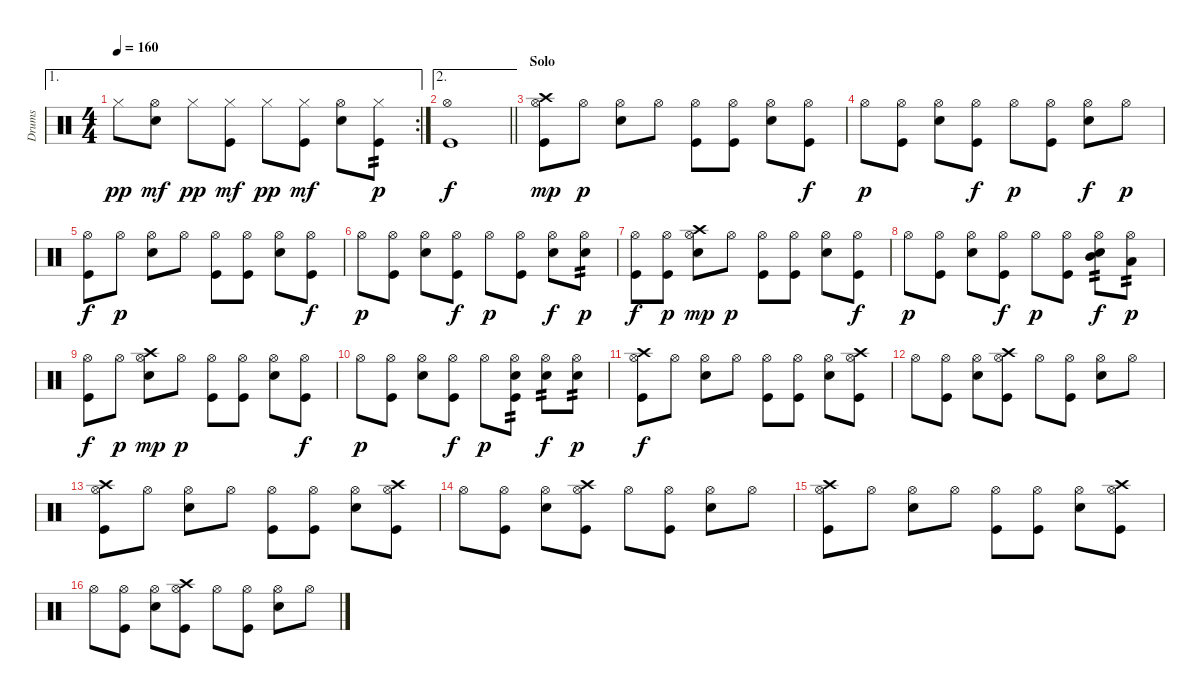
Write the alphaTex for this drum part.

\track ("Drums" "Drums") {instrument percussion}
\staff {score}
\articulation defaults
\ae 1
\rc 2
\ts (4 4)
\tempo 160
\clef neutral
\ks c "Hi-Hat (closed)".8{dy pp}
("Snare (hit) 2" "Hi-Hat (open)").8{dy mf} "Hi-Hat (closed)".8{dy pp} ("Kick (hit)" "Hi-Hat (closed)").8{dy mf} "Hi-Hat (closed)".8{dy pp} ("Kick (hit)" "Hi-Hat (closed)").8{dy mf} ("Snare (hit) 2" "Hi-Hat (open)").8 ("Kick (hit)" "Hi-Hat (closed)").8{tp 2 dy p} |
\ae 2
\barLineRight lightlight
("Kick (hit)" "Hi-Hat (open)").1{dy f} |
\section ("" "Solo")
("Kick (hit)" "Hi-Hat (open)" "Crash high (hit)").8{dy mp} "Hi-Hat (open)".8{dy p} ("Snare (hit) 2" "Hi-Hat (open)").8 "Hi-Hat (open)".8 ("Kick (hit)" "Hi-Hat (open)").8 ("Kick (hit)" "Hi-Hat (open)").8 ("Snare (hit) 2" "Hi-Hat (open)").8 ("Kick (hit)" "Hi-Hat (open)").8{dy f} |
"Hi-Hat (open)".8{dy p} ("Kick (hit)" "Hi-Hat (open)").8 ("Snare (hit) 2" "Hi-Hat (open)").8 ("Kick (hit)" "Hi-Hat (open)").8{dy f} "Hi-Hat (open)".8{dy p} ("Kick (hit)" "Hi-Hat (open)").8 ("Snare (hit) 2" "Hi-Hat (open)").8{dy f} "Hi-Hat (open)".8{dy p} |
("Kick (hit)" "Hi-Hat (open)").8{dy f} "Hi-Hat (open)".8{dy p} ("Snare (hit) 2" "Hi-Hat (open)").8 "Hi-Hat (open)".8 ("Kick (hit)" "Hi-Hat (open)").8 ("Kick (hit)" "Hi-Hat (open)").8 ("Snare (hit) 2" "Hi-Hat (open)").8 ("Kick (hit)" "Hi-Hat (open)").8{dy f} |
"Hi-Hat (open)".8{dy p} ("Kick (hit)" "Hi-Hat (open)").8 ("Snare (hit) 2" "Hi-Hat (open)").8 ("Kick (hit)" "Hi-Hat (open)").8{dy f} "Hi-Hat (open)".8{dy p} ("Kick (hit)" "Hi-Hat (open)").8 ("Snare (hit) 2" "Hi-Hat (open)").8{dy f} ("Snare (hit) 2" "Hi-Hat (open)").8{tp 2 dy p} |
("Kick (hit)" "Hi-Hat (open)").8{dy f} ("Kick (hit)" "Hi-Hat (open)").8{dy p} ("Snare (hit) 2" "Hi-Hat (open)" "Crash high (hit)").8{dy mp} "Hi-Hat (open)".8{dy p} ("Kick (hit)" "Hi-Hat (open)").8 ("Kick (hit)" "Hi-Hat (open)").8 ("Snare (hit) 2" "Hi-Hat (open)").8 ("Kick (hit)" "Hi-Hat (open)").8{dy f} |
"Hi-Hat (open)".8{dy p} ("Kick (hit)" "Hi-Hat (open)").8 ("Snare (hit) 2" "Hi-Hat (open)").8 ("Kick (hit)" "Hi-Hat (open)").8{dy f} "Hi-Hat (open)".8{dy p} ("Kick (hit)" "Hi-Hat (open)").8 ("Snare (hit) 2" "Mid Tom (hit)" "Hi-Hat (open)").8{tp 2 dy f} ("Low Tom (hit)" "Hi-Hat (open)").8{tp 2 dy p} |
("Kick (hit)" "Hi-Hat (open)").8{dy f} "Hi-Hat (open)".8{dy p} ("Snare (hit) 2" "Hi-Hat (open)" "Crash high (hit)").8{dy mp} "Hi-Hat (open)".8{dy p} ("Kick (hit)" "Hi-Hat (open)").8 ("Kick (hit)" "Hi-Hat (open)").8 ("Snare (hit) 2" "Hi-Hat (open)").8 ("Kick (hit)" "Hi-Hat (open)").8{dy f} |
"Hi-Hat (open)".8{dy p} ("Kick (hit)" "Hi-Hat (open)").8 ("Snare (hit) 2" "Hi-Hat (open)").8 ("Kick (hit)" "Hi-Hat (open)").8{dy f} "Hi-Hat (open)".8{dy p} ("Kick (hit)" "Snare (hit) 2" "Hi-Hat (open)").8{tp 2} ("Snare (hit) 2" "Hi-Hat (open)").8{tp 2 dy f} ("Snare (hit) 2" "Hi-Hat (open)").8{tp 2 dy p} |
("Kick (hit)" "Hi-Hat (open)" "Crash high (hit)").8{dy f} "Hi-Hat (open)".8 ("Snare (hit) 2" "Hi-Hat (open)").8 "Hi-Hat (open)".8 ("Kick (hit)" "Hi-Hat (open)").8 ("Kick (hit)" "Hi-Hat (open)").8 ("Snare (hit) 2" "Hi-Hat (open)").8 ("Kick (hit)" "Hi-Hat (open)" "Crash high (hit)").8 |
"Hi-Hat (open)".8 ("Kick (hit)" "Hi-Hat (open)").8 ("Snare (hit) 2" "Hi-Hat (open)").8 ("Kick (hit)" "Hi-Hat (open)" "Crash high (hit)").8 "Hi-Hat (open)".8 ("Kick (hit)" "Hi-Hat (open)").8 ("Snare (hit) 2" "Hi-Hat (open)").8 "Hi-Hat (open)".8 |
("Kick (hit)" "Hi-Hat (open)" "Crash high (hit)").8 "Hi-Hat (open)".8 ("Snare (hit) 2" "Hi-Hat (open)").8 "Hi-Hat (open)".8 ("Kick (hit)" "Hi-Hat (open)").8 ("Kick (hit)" "Hi-Hat (open)").8 ("Snare (hit) 2" "Hi-Hat (open)").8 ("Kick (hit)" "Hi-Hat (open)" "Crash high (hit)").8 |
"Hi-Hat (open)".8 ("Kick (hit)" "Hi-Hat (open)").8 ("Snare (hit) 2" "Hi-Hat (open)").8 ("Kick (hit)" "Hi-Hat (open)" "Crash high (hit)").8 "Hi-Hat (open)".8 ("Kick (hit)" "Hi-Hat (open)").8 ("Snare (hit) 2" "Hi-Hat (open)").8 "Hi-Hat (open)".8 |
("Kick (hit)" "Hi-Hat (open)" "Crash high (hit)").8 "Hi-Hat (open)".8 ("Snare (hit) 2" "Hi-Hat (open)").8 "Hi-Hat (open)".8 ("Kick (hit)" "Hi-Hat (open)").8 ("Kick (hit)" "Hi-Hat (open)").8 ("Snare (hit) 2" "Hi-Hat (open)").8 ("Kick (hit)" "Hi-Hat (open)" "Crash high (hit)").8 |
"Hi-Hat (open)".8 ("Kick (hit)" "Hi-Hat (open)").8 ("Snare (hit) 2" "Hi-Hat (open)").8 ("Kick (hit)" "Hi-Hat (open)" "Crash high (hit)").8 "Hi-Hat (open)".8 ("Kick (hit)" "Hi-Hat (open)").8 ("Snare (hit) 2" "Hi-Hat (open)").8 "Hi-Hat (open)".8
